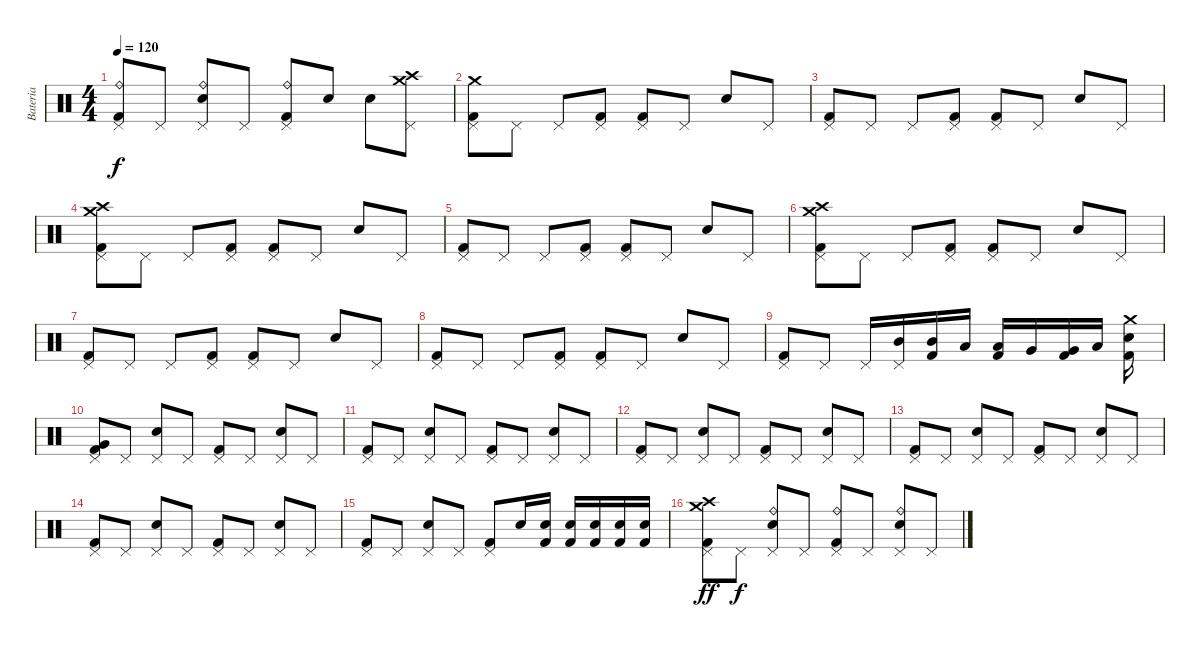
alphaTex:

\track ("Bateria" "Bateria") {instrument percussion}
\staff {score}
\articulation defaults
\ts (4 4)
\tempo 120
\clef neutral
\ks c
("Pedal Hi-Hat (hit)" "Kick (hit) 2" "Ride (bell)").8{dy f} "Pedal Hi-Hat (hit)".8 ("Pedal Hi-Hat (hit)" "Electric Snare (hit)" "Ride (bell)").8 "Pedal Hi-Hat (hit)".8 ("Pedal Hi-Hat (hit)" "Kick (hit) 2" "Ride (bell)").8 "Electric Snare (hit)".8 "Electric Snare (hit)".8 ("Pedal Hi-Hat (hit)" "Crash medium (hit)" "Crash high (hit)").8 |
("Pedal Hi-Hat (hit)" "Kick (hit) 2" "Crash medium (hit)").8 "Pedal Hi-Hat (hit)".8 "Pedal Hi-Hat (hit)".8 ("Pedal Hi-Hat (hit)" "Kick (hit) 2").8 ("Pedal Hi-Hat (hit)" "Kick (hit) 2").8 "Pedal Hi-Hat (hit)".8 "Electric Snare (hit)".8 "Pedal Hi-Hat (hit)".8 |
("Pedal Hi-Hat (hit)" "Kick (hit) 2").8 "Pedal Hi-Hat (hit)".8 "Pedal Hi-Hat (hit)".8 ("Pedal Hi-Hat (hit)" "Kick (hit) 2").8 ("Pedal Hi-Hat (hit)" "Kick (hit) 2").8 "Pedal Hi-Hat (hit)".8 "Electric Snare (hit)".8 "Pedal Hi-Hat (hit)".8 |
("Pedal Hi-Hat (hit)" "Kick (hit) 2" "Crash medium (hit)" "Crash high (hit)").8 "Pedal Hi-Hat (hit)".8 "Pedal Hi-Hat (hit)".8 ("Pedal Hi-Hat (hit)" "Kick (hit) 2").8 ("Pedal Hi-Hat (hit)" "Kick (hit) 2").8 "Pedal Hi-Hat (hit)".8 "Electric Snare (hit)".8 "Pedal Hi-Hat (hit)".8 |
("Pedal Hi-Hat (hit)" "Kick (hit) 2").8 "Pedal Hi-Hat (hit)".8 "Pedal Hi-Hat (hit)".8 ("Pedal Hi-Hat (hit)" "Kick (hit) 2").8 ("Pedal Hi-Hat (hit)" "Kick (hit) 2").8 "Pedal Hi-Hat (hit)".8 "Electric Snare (hit)".8 "Pedal Hi-Hat (hit)".8 |
("Pedal Hi-Hat (hit)" "Kick (hit) 2" "Crash medium (hit)" "Crash high (hit)").8 "Pedal Hi-Hat (hit)".8 "Pedal Hi-Hat (hit)".8 ("Pedal Hi-Hat (hit)" "Kick (hit) 2").8 ("Pedal Hi-Hat (hit)" "Kick (hit) 2").8 "Pedal Hi-Hat (hit)".8 "Electric Snare (hit)".8 "Pedal Hi-Hat (hit)".8 |
("Pedal Hi-Hat (hit)" "Kick (hit) 2").8 "Pedal Hi-Hat (hit)".8 "Pedal Hi-Hat (hit)".8 ("Pedal Hi-Hat (hit)" "Kick (hit) 2").8 ("Pedal Hi-Hat (hit)" "Kick (hit) 2").8 "Pedal Hi-Hat (hit)".8 "Electric Snare (hit)".8 "Pedal Hi-Hat (hit)".8 |
("Pedal Hi-Hat (hit)" "Kick (hit) 2").8 "Pedal Hi-Hat (hit)".8 "Pedal Hi-Hat (hit)".8 ("Pedal Hi-Hat (hit)" "Kick (hit) 2").8 ("Pedal Hi-Hat (hit)" "Kick (hit) 2").8 "Pedal Hi-Hat (hit)".8 "Electric Snare (hit)".8 "Pedal Hi-Hat (hit)".8 |
("Pedal Hi-Hat (hit)" "Kick (hit) 2").8 "Pedal Hi-Hat (hit)".8 "Pedal Hi-Hat (hit)".16 ("Pedal Hi-Hat (hit)" "Mid Tom (hit)").16 ("Mid Tom (hit)" "Kick (hit) 2").16 "Low Tom (hit)".16 ("Low Tom (hit)" "Kick (hit) 2").16 "Very Low Tom (hit)".16 ("Very Low Tom (hit)" "Kick (hit) 2").16 "Low Floor Tom (hit)".16 ("Electric Snare (hit)" "Kick (hit) 2" "Crash medium (hit)").16 |
("Pedal Hi-Hat (hit)" "Very Low Tom (hit)" "Kick (hit) 2").8 "Pedal Hi-Hat (hit)".8 ("Pedal Hi-Hat (hit)" "Electric Snare (hit)").8 "Pedal Hi-Hat (hit)".8 ("Pedal Hi-Hat (hit)" "Kick (hit) 2").8 "Pedal Hi-Hat (hit)".8 ("Pedal Hi-Hat (hit)" "Electric Snare (hit)").8 "Pedal Hi-Hat (hit)".8 |
("Pedal Hi-Hat (hit)" "Kick (hit) 2").8 "Pedal Hi-Hat (hit)".8 ("Pedal Hi-Hat (hit)" "Electric Snare (hit)").8 "Pedal Hi-Hat (hit)".8 ("Pedal Hi-Hat (hit)" "Kick (hit) 2").8 "Pedal Hi-Hat (hit)".8 ("Pedal Hi-Hat (hit)" "Electric Snare (hit)").8 "Pedal Hi-Hat (hit)".8 |
("Pedal Hi-Hat (hit)" "Kick (hit) 2").8 "Pedal Hi-Hat (hit)".8 ("Pedal Hi-Hat (hit)" "Electric Snare (hit)").8 "Pedal Hi-Hat (hit)".8 ("Pedal Hi-Hat (hit)" "Kick (hit) 2").8 "Pedal Hi-Hat (hit)".8 ("Pedal Hi-Hat (hit)" "Electric Snare (hit)").8 "Pedal Hi-Hat (hit)".8 |
("Pedal Hi-Hat (hit)" "Kick (hit) 2").8 "Pedal Hi-Hat (hit)".8 ("Pedal Hi-Hat (hit)" "Electric Snare (hit)").8 "Pedal Hi-Hat (hit)".8 ("Pedal Hi-Hat (hit)" "Kick (hit) 2").8 "Pedal Hi-Hat (hit)".8 ("Pedal Hi-Hat (hit)" "Electric Snare (hit)").8 "Pedal Hi-Hat (hit)".8 |
("Pedal Hi-Hat (hit)" "Kick (hit) 2").8 "Pedal Hi-Hat (hit)".8 ("Pedal Hi-Hat (hit)" "Electric Snare (hit)").8 "Pedal Hi-Hat (hit)".8 ("Pedal Hi-Hat (hit)" "Kick (hit) 2").8 "Pedal Hi-Hat (hit)".8 ("Pedal Hi-Hat (hit)" "Electric Snare (hit)").8 "Pedal Hi-Hat (hit)".8 |
("Pedal Hi-Hat (hit)" "Kick (hit) 2").8 "Pedal Hi-Hat (hit)".8 ("Pedal Hi-Hat (hit)" "Electric Snare (hit)").8 "Pedal Hi-Hat (hit)".8 ("Pedal Hi-Hat (hit)" "Kick (hit) 2").8 "Electric Snare (hit)".16 ("Electric Snare (hit)" "Kick (hit) 2").16 ("Electric Snare (hit)" "Kick (hit) 2").16 ("Electric Snare (hit)" "Kick (hit) 2").16 ("Electric Snare (hit)" "Kick (hit) 2").16 ("Electric Snare (hit)" "Kick (hit) 2").16 |
("Pedal Hi-Hat (hit)" "Kick (hit) 2" "Crash medium (hit)" "Crash high (hit)").8{dy ff} "Pedal Hi-Hat (hit)".8{dy f} ("Pedal Hi-Hat (hit)" "Electric Snare (hit)" "Ride (bell)").8 "Pedal Hi-Hat (hit)".8 ("Pedal Hi-Hat (hit)" "Kick (hit) 2" "Ride (bell)").8 "Pedal Hi-Hat (hit)".8 ("Pedal Hi-Hat (hit)" "Electric Snare (hit)" "Ride (bell)").8 "Pedal Hi-Hat (hit)".8
